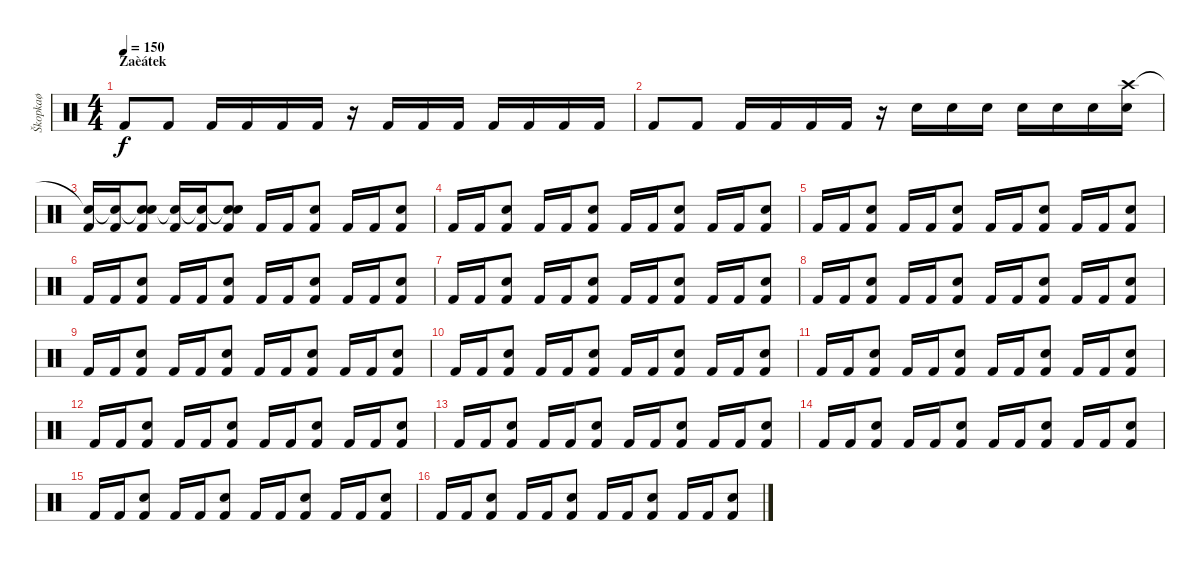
\track ("Škopkaø" "Škopkaø") {instrument percussion}
\staff {score}
\articulation defaults
\ts (4 4)
\section ("" "Zaèátek")
\tempo 150
\clef neutral
\ks c "Kick (hit) 2".8{dy f} "Kick (hit) 2".8 "Kick (hit) 2".16 "Kick (hit) 2".16 "Kick (hit) 2".16 "Kick (hit) 2".16
r.16 "Kick (hit) 2".16 "Kick (hit) 2".16 "Kick (hit) 2".16 "Kick (hit) 2".16 "Kick (hit) 2".16 "Kick (hit) 2".16 "Kick (hit) 2".16 |
"Kick (hit) 2".8 "Kick (hit) 2".8 "Kick (hit) 2".16 "Kick (hit) 2".16 "Kick (hit) 2".16 "Kick (hit) 2".16 r.16 "Electric Snare (hit)".16 "Electric Snare (hit)".16 "Electric Snare (hit)".16 "Electric Snare (hit)".16 "Electric Snare (hit)".16 "Electric Snare (hit)".16 ("Crash high (hit)" "Electric Snare (hit)").16 |
("Snare (hit)"{t} "Kick (hit) 2").16 ("Snare (hit)"{t} "Kick (hit) 2").16 ("Snare (hit)"{t} "Electric Snare (hit)" "Kick (hit) 2").8 ("Snare (hit)"{t} "Kick (hit) 2").16 ("Snare (hit)"{t} "Kick (hit) 2").16 ("Snare (hit)"{t} "Electric Snare (hit)" "Kick (hit) 2").8 "Kick (hit) 2".16 "Kick (hit) 2".16 ("Electric Snare (hit)" "Kick (hit) 2").8 "Kick (hit) 2".16 "Kick (hit) 2".16 ("Electric Snare (hit)" "Kick (hit) 2").8 |
"Kick (hit) 2".16 "Kick (hit) 2".16 ("Electric Snare (hit)" "Kick (hit) 2").8 "Kick (hit) 2".16 "Kick (hit) 2".16 ("Electric Snare (hit)" "Kick (hit) 2").8 "Kick (hit) 2".16 "Kick (hit) 2".16 ("Electric Snare (hit)" "Kick (hit) 2").8 "Kick (hit) 2".16 "Kick (hit) 2".16 ("Electric Snare (hit)" "Kick (hit) 2").8 |
"Kick (hit) 2".16 "Kick (hit) 2".16 ("Electric Snare (hit)" "Kick (hit) 2").8 "Kick (hit) 2".16 "Kick (hit) 2".16 ("Electric Snare (hit)" "Kick (hit) 2").8 "Kick (hit) 2".16 "Kick (hit) 2".16 ("Electric Snare (hit)" "Kick (hit) 2").8 "Kick (hit) 2".16 "Kick (hit) 2".16 ("Electric Snare (hit)" "Kick (hit) 2").8 |
"Kick (hit) 2".16 "Kick (hit) 2".16 ("Electric Snare (hit)" "Kick (hit) 2").8 "Kick (hit) 2".16 "Kick (hit) 2".16 ("Electric Snare (hit)" "Kick (hit) 2").8 "Kick (hit) 2".16 "Kick (hit) 2".16 ("Electric Snare (hit)" "Kick (hit) 2").8 "Kick (hit) 2".16 "Kick (hit) 2".16 ("Electric Snare (hit)" "Kick (hit) 2").8 |
"Kick (hit) 2".16 "Kick (hit) 2".16 ("Electric Snare (hit)" "Kick (hit) 2").8 "Kick (hit) 2".16 "Kick (hit) 2".16 ("Electric Snare (hit)" "Kick (hit) 2").8 "Kick (hit) 2".16 "Kick (hit) 2".16 ("Electric Snare (hit)" "Kick (hit) 2").8 "Kick (hit) 2".16 "Kick (hit) 2".16 ("Electric Snare (hit)" "Kick (hit) 2").8 |
"Kick (hit) 2".16 "Kick (hit) 2".16 ("Electric Snare (hit)" "Kick (hit) 2").8 "Kick (hit) 2".16 "Kick (hit) 2".16 ("Electric Snare (hit)" "Kick (hit) 2").8 "Kick (hit) 2".16 "Kick (hit) 2".16 ("Electric Snare (hit)" "Kick (hit) 2").8 "Kick (hit) 2".16 "Kick (hit) 2".16 ("Electric Snare (hit)" "Kick (hit) 2").8 |
"Kick (hit) 2".16 "Kick (hit) 2".16 ("Electric Snare (hit)" "Kick (hit) 2").8 "Kick (hit) 2".16 "Kick (hit) 2".16 ("Electric Snare (hit)" "Kick (hit) 2").8 "Kick (hit) 2".16 "Kick (hit) 2".16 ("Electric Snare (hit)" "Kick (hit) 2").8 "Kick (hit) 2".16 "Kick (hit) 2".16 ("Electric Snare (hit)" "Kick (hit) 2").8 |
"Kick (hit) 2".16 "Kick (hit) 2".16 ("Electric Snare (hit)" "Kick (hit) 2").8 "Kick (hit) 2".16 "Kick (hit) 2".16 ("Electric Snare (hit)" "Kick (hit) 2").8 "Kick (hit) 2".16 "Kick (hit) 2".16 ("Electric Snare (hit)" "Kick (hit) 2").8 "Kick (hit) 2".16 "Kick (hit) 2".16 ("Electric Snare (hit)" "Kick (hit) 2").8 |
"Kick (hit) 2".16 "Kick (hit) 2".16 ("Electric Snare (hit)" "Kick (hit) 2").8 "Kick (hit) 2".16 "Kick (hit) 2".16 ("Electric Snare (hit)" "Kick (hit) 2").8 "Kick (hit) 2".16 "Kick (hit) 2".16 ("Electric Snare (hit)" "Kick (hit) 2").8 "Kick (hit) 2".16 "Kick (hit) 2".16 ("Electric Snare (hit)" "Kick (hit) 2").8 |
"Kick (hit) 2".16 "Kick (hit) 2".16 ("Electric Snare (hit)" "Kick (hit) 2").8 "Kick (hit) 2".16 "Kick (hit) 2".16 ("Electric Snare (hit)" "Kick (hit) 2").8 "Kick (hit) 2".16 "Kick (hit) 2".16 ("Electric Snare (hit)" "Kick (hit) 2").8 "Kick (hit) 2".16 "Kick (hit) 2".16 ("Electric Snare (hit)" "Kick (hit) 2").8 |
"Kick (hit) 2".16 "Kick (hit) 2".16 ("Electric Snare (hit)" "Kick (hit) 2").8 "Kick (hit) 2".16 "Kick (hit) 2".16 ("Electric Snare (hit)" "Kick (hit) 2").8 "Kick (hit) 2".16 "Kick (hit) 2".16 ("Electric Snare (hit)" "Kick (hit) 2").8 "Kick (hit) 2".16 "Kick (hit) 2".16 ("Electric Snare (hit)" "Kick (hit) 2").8 |
"Kick (hit) 2".16 "Kick (hit) 2".16 ("Electric Snare (hit)" "Kick (hit) 2").8 "Kick (hit) 2".16 "Kick (hit) 2".16 ("Electric Snare (hit)" "Kick (hit) 2").8 "Kick (hit) 2".16 "Kick (hit) 2".16 ("Electric Snare (hit)" "Kick (hit) 2").8 "Kick (hit) 2".16 "Kick (hit) 2".16 ("Electric Snare (hit)" "Kick (hit) 2").8 |
"Kick (hit) 2".16 "Kick (hit) 2".16 ("Electric Snare (hit)" "Kick (hit) 2").8 "Kick (hit) 2".16 "Kick (hit) 2".16 ("Electric Snare (hit)" "Kick (hit) 2").8 "Kick (hit) 2".16 "Kick (hit) 2".16 ("Electric Snare (hit)" "Kick (hit) 2").8 "Kick (hit) 2".16 "Kick (hit) 2".16 ("Electric Snare (hit)" "Kick (hit) 2").8 |
"Kick (hit) 2".16 "Kick (hit) 2".16 ("Electric Snare (hit)" "Kick (hit) 2").8 "Kick (hit) 2".16 "Kick (hit) 2".16 ("Electric Snare (hit)" "Kick (hit) 2").8 "Kick (hit) 2".16 "Kick (hit) 2".16 ("Electric Snare (hit)" "Kick (hit) 2").8 "Kick (hit) 2".16 "Kick (hit) 2".16 ("Electric Snare (hit)" "Kick (hit) 2").8
